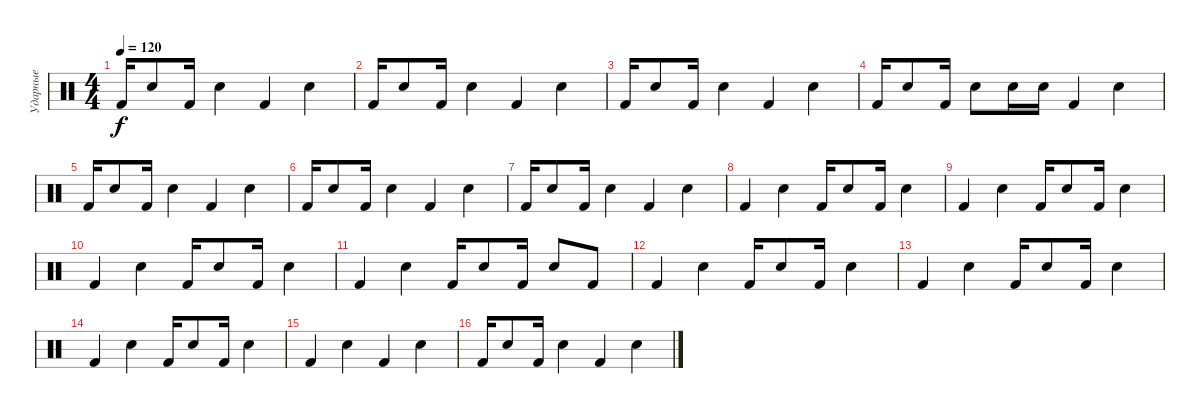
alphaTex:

\track ("Ударные" "Ударные") {instrument percussion}
\staff {score}
\articulation defaults
\ts (4 4)
\tempo 120
\clef neutral
\ks c "Kick (hit) 2".16{dy f} "Snare (hit) 2".8 "Kick (hit) 2".16 "Snare (hit) 2".4 "Kick (hit) 2".4 "Snare (hit) 2".4
|
"Kick (hit) 2".16 "Snare (hit) 2".8 "Kick (hit) 2".16 "Snare (hit) 2".4 "Kick (hit) 2".4 "Snare (hit) 2".4 |
"Kick (hit) 2".16 "Snare (hit) 2".8 "Kick (hit) 2".16 "Snare (hit) 2".4 "Kick (hit) 2".4 "Snare (hit) 2".4 |
"Kick (hit) 2".16 "Snare (hit) 2".8 "Kick (hit) 2".16 "Snare (hit) 2".8 "Snare (hit) 2".16 "Snare (hit) 2".16 "Kick (hit) 2".4 "Snare (hit) 2".4 |
"Kick (hit) 2".16 "Snare (hit) 2".8 "Kick (hit) 2".16 "Snare (hit) 2".4 "Kick (hit) 2".4 "Snare (hit) 2".4 |
"Kick (hit) 2".16 "Snare (hit) 2".8 "Kick (hit) 2".16 "Snare (hit) 2".4 "Kick (hit) 2".4 "Snare (hit) 2".4 |
"Kick (hit) 2".16 "Snare (hit) 2".8 "Kick (hit) 2".16 "Snare (hit) 2".4 "Kick (hit) 2".4 "Snare (hit) 2".4 |
"Kick (hit) 2".4 "Snare (hit) 2".4 "Kick (hit) 2".16 "Snare (hit) 2".8 "Kick (hit) 2".16 "Snare (hit) 2".4 |
"Kick (hit) 2".4 "Snare (hit) 2".4 "Kick (hit) 2".16 "Snare (hit) 2".8 "Kick (hit) 2".16 "Snare (hit) 2".4 |
"Kick (hit) 2".4 "Snare (hit) 2".4 "Kick (hit) 2".16 "Snare (hit) 2".8 "Kick (hit) 2".16 "Snare (hit) 2".4 |
"Kick (hit) 2".4 "Snare (hit) 2".4 "Kick (hit) 2".16 "Snare (hit) 2".8 "Kick (hit) 2".16 "Snare (hit) 2".8 "Kick (hit) 2".8 |
"Kick (hit) 2".4 "Snare (hit) 2".4 "Kick (hit) 2".16 "Snare (hit) 2".8 "Kick (hit) 2".16 "Snare (hit) 2".4 |
"Kick (hit) 2".4 "Snare (hit) 2".4 "Kick (hit) 2".16 "Snare (hit) 2".8 "Kick (hit) 2".16 "Snare (hit) 2".4 |
"Kick (hit) 2".4 "Snare (hit) 2".4 "Kick (hit) 2".16 "Snare (hit) 2".8 "Kick (hit) 2".16 "Snare (hit) 2".4 |
"Kick (hit) 2".4 "Snare (hit) 2".4 "Kick (hit) 2".4 "Snare (hit) 2".4 |
"Kick (hit) 2".16 "Snare (hit) 2".8 "Kick (hit) 2".16 "Snare (hit) 2".4 "Kick (hit) 2".4 "Snare (hit) 2".4
